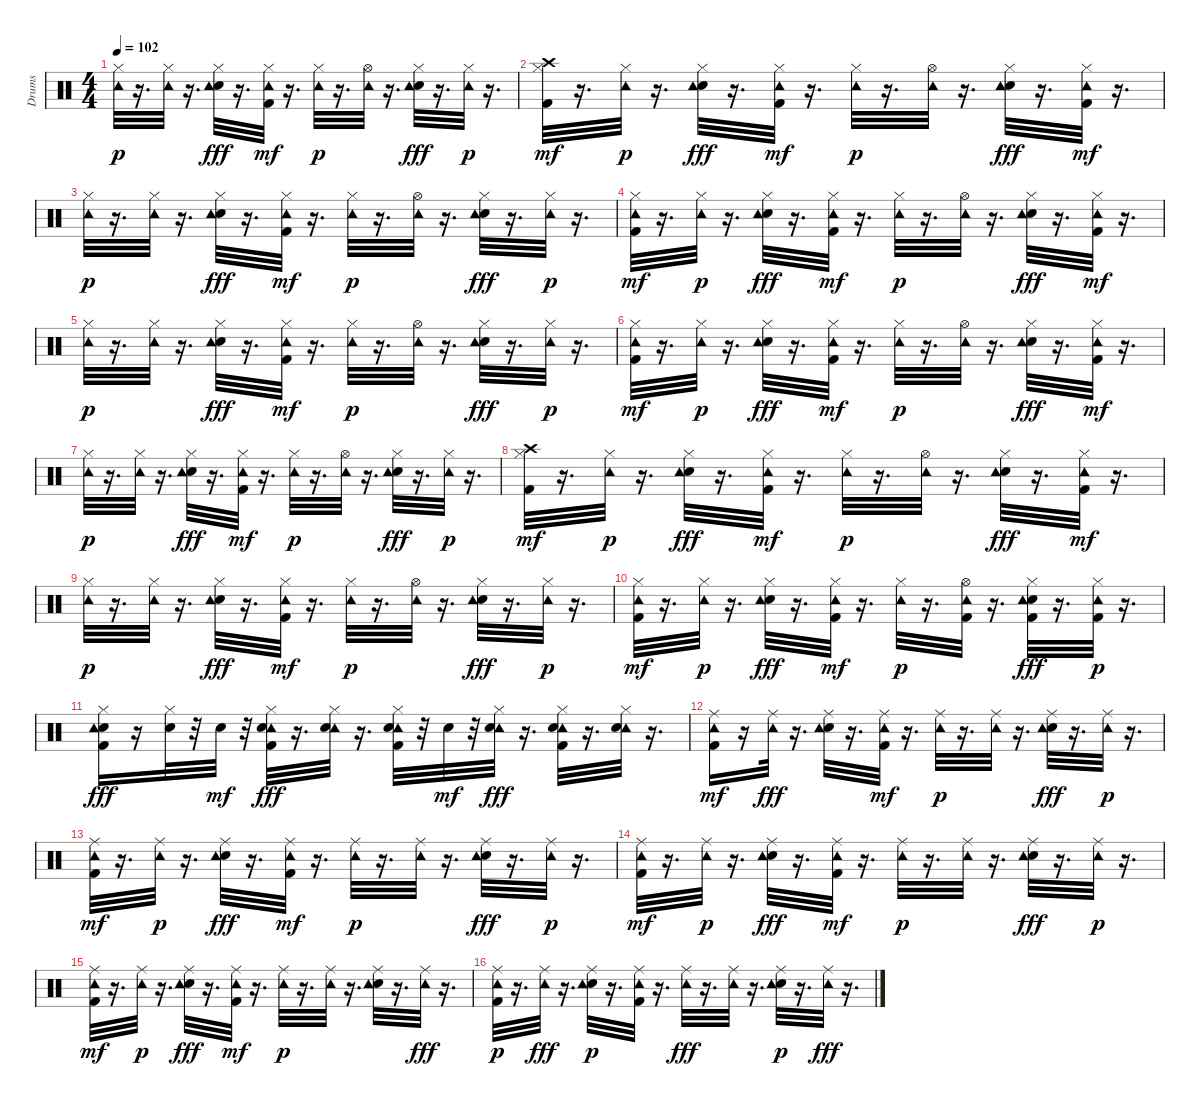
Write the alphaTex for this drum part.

\track ("Drums" "Drums") {instrument percussion}
\staff {score}
\articulation defaults
\ts (4 4)
\tempo 102
\clef neutral
\ks c
("Hi-Hat (closed)" "Tambourine (hit)").32{dy p} r.16{d} ("Hi-Hat (closed)" "Tambourine (hit)").32 r.16{d} ("Electric Snare (hit)" "Tambourine (hit)" "Hi-Hat (closed)").32{dy fff} r.16{d} ("Hi-Hat (closed)" "Tambourine (hit)" "Kick (hit) 2").32{dy mf} r.16{d} ("Hi-Hat (closed)" "Tambourine (hit)").32{dy p} r.16{d} ("Hi-Hat (open)" "Tambourine (hit)").32 r.16{d} ("Electric Snare (hit)" "Tambourine (hit)" "Hi-Hat (closed)").32{dy fff} r.16{d} ("Hi-Hat (closed)" "Tambourine (hit)").32{dy p} r.16{d} |
("Hi-Hat (closed)" "Crash high (hit)" "Kick (hit) 2").32{dy mf} r.16{d} ("Hi-Hat (closed)" "Tambourine (hit)").32{dy p} r.16{d} ("Electric Snare (hit)" "Tambourine (hit)" "Hi-Hat (closed)").32{dy fff} r.16{d} ("Hi-Hat (closed)" "Tambourine (hit)" "Kick (hit) 2").32{dy mf} r.16{d} ("Hi-Hat (closed)" "Tambourine (hit)").32{dy p} r.16{d} ("Hi-Hat (open)" "Tambourine (hit)").32 r.16{d} ("Electric Snare (hit)" "Tambourine (hit)" "Hi-Hat (closed)").32{dy fff} r.16{d} ("Hi-Hat (closed)" "Tambourine (hit)" "Kick (hit) 2").32{dy mf} r.16{d} |
("Hi-Hat (closed)" "Tambourine (hit)").32{dy p} r.16{d} ("Hi-Hat (closed)" "Tambourine (hit)").32 r.16{d} ("Electric Snare (hit)" "Tambourine (hit)" "Hi-Hat (closed)").32{dy fff} r.16{d} ("Hi-Hat (closed)" "Tambourine (hit)" "Kick (hit) 2").32{dy mf} r.16{d} ("Hi-Hat (closed)" "Tambourine (hit)").32{dy p} r.16{d} ("Hi-Hat (open)" "Tambourine (hit)").32 r.16{d} ("Electric Snare (hit)" "Tambourine (hit)" "Hi-Hat (closed)").32{dy fff} r.16{d} ("Hi-Hat (closed)" "Tambourine (hit)").32{dy p} r.16{d} |
("Hi-Hat (closed)" "Tambourine (hit)" "Kick (hit) 2").32{dy mf} r.16{d} ("Hi-Hat (closed)" "Tambourine (hit)").32{dy p} r.16{d} ("Electric Snare (hit)" "Tambourine (hit)" "Hi-Hat (closed)").32{dy fff} r.16{d} ("Hi-Hat (closed)" "Tambourine (hit)" "Kick (hit) 2").32{dy mf} r.16{d} ("Hi-Hat (closed)" "Tambourine (hit)").32{dy p} r.16{d} ("Hi-Hat (open)" "Tambourine (hit)").32 r.16{d} ("Electric Snare (hit)" "Tambourine (hit)" "Hi-Hat (closed)").32{dy fff} r.16{d} ("Hi-Hat (closed)" "Tambourine (hit)" "Kick (hit) 2").32{dy mf} r.16{d} |
("Hi-Hat (closed)" "Tambourine (hit)").32{dy p} r.16{d} ("Hi-Hat (closed)" "Tambourine (hit)").32 r.16{d} ("Electric Snare (hit)" "Tambourine (hit)" "Hi-Hat (closed)").32{dy fff} r.16{d} ("Hi-Hat (closed)" "Tambourine (hit)" "Kick (hit) 2").32{dy mf} r.16{d} ("Hi-Hat (closed)" "Tambourine (hit)").32{dy p} r.16{d} ("Hi-Hat (open)" "Tambourine (hit)").32 r.16{d} ("Electric Snare (hit)" "Tambourine (hit)" "Hi-Hat (closed)").32{dy fff} r.16{d} ("Hi-Hat (closed)" "Tambourine (hit)").32{dy p} r.16{d} |
("Hi-Hat (closed)" "Tambourine (hit)" "Kick (hit) 2").32{dy mf} r.16{d} ("Hi-Hat (closed)" "Tambourine (hit)").32{dy p} r.16{d} ("Electric Snare (hit)" "Tambourine (hit)" "Hi-Hat (closed)").32{dy fff} r.16{d} ("Hi-Hat (closed)" "Tambourine (hit)" "Kick (hit) 2").32{dy mf} r.16{d} ("Hi-Hat (closed)" "Tambourine (hit)").32{dy p} r.16{d} ("Hi-Hat (open)" "Tambourine (hit)").32 r.16{d} ("Electric Snare (hit)" "Tambourine (hit)" "Hi-Hat (closed)").32{dy fff} r.16{d} ("Hi-Hat (closed)" "Tambourine (hit)" "Kick (hit) 2").32{dy mf} r.16{d} |
("Hi-Hat (closed)" "Tambourine (hit)").32{dy p} r.16{d} ("Hi-Hat (closed)" "Tambourine (hit)").32 r.16{d} ("Electric Snare (hit)" "Tambourine (hit)" "Hi-Hat (closed)").32{dy fff} r.16{d} ("Hi-Hat (closed)" "Tambourine (hit)" "Kick (hit) 2").32{dy mf} r.16{d} ("Hi-Hat (closed)" "Tambourine (hit)").32{dy p} r.16{d} ("Hi-Hat (open)" "Tambourine (hit)").32 r.16{d} ("Electric Snare (hit)" "Tambourine (hit)" "Hi-Hat (closed)").32{dy fff} r.16{d} ("Hi-Hat (closed)" "Tambourine (hit)").32{dy p} r.16{d} |
("Hi-Hat (closed)" "Crash high (hit)" "Kick (hit) 2").32{dy mf} r.16{d} ("Hi-Hat (closed)" "Tambourine (hit)").32{dy p} r.16{d} ("Electric Snare (hit)" "Tambourine (hit)" "Hi-Hat (closed)").32{dy fff} r.16{d} ("Hi-Hat (closed)" "Tambourine (hit)" "Kick (hit) 2").32{dy mf} r.16{d} ("Hi-Hat (closed)" "Tambourine (hit)").32{dy p} r.16{d} ("Hi-Hat (open)" "Tambourine (hit)").32 r.16{d} ("Electric Snare (hit)" "Tambourine (hit)" "Hi-Hat (closed)").32{dy fff} r.16{d} ("Hi-Hat (closed)" "Tambourine (hit)" "Kick (hit) 2").32{dy mf} r.16{d} |
("Hi-Hat (closed)" "Tambourine (hit)").32{dy p} r.16{d} ("Hi-Hat (closed)" "Tambourine (hit)").32 r.16{d} ("Electric Snare (hit)" "Tambourine (hit)" "Hi-Hat (closed)").32{dy fff} r.16{d} ("Hi-Hat (closed)" "Tambourine (hit)" "Kick (hit) 2").32{dy mf} r.16{d} ("Hi-Hat (closed)" "Tambourine (hit)").32{dy p} r.16{d} ("Hi-Hat (open)" "Tambourine (hit)").32 r.16{d} ("Electric Snare (hit)" "Tambourine (hit)" "Hi-Hat (closed)").32{dy fff} r.16{d} ("Hi-Hat (closed)" "Tambourine (hit)").32{dy p} r.16{d} |
("Hi-Hat (closed)" "Tambourine (hit)" "Kick (hit) 2").32{dy mf} r.16{d} ("Hi-Hat (closed)" "Tambourine (hit)").32{dy p} r.16{d} ("Electric Snare (hit)" "Tambourine (hit)" "Hi-Hat (closed)").32{dy fff} r.16{d} ("Hi-Hat (closed)" "Tambourine (hit)" "Kick (hit) 2").32{dy mf} r.16{d} ("Hi-Hat (closed)" "Tambourine (hit)").32{dy p} r.16{d} ("Kick (hit) 2" "Hi-Hat (open)" "Tambourine (hit)").32 r.16{d} ("Kick (hit) 2" "Electric Snare (hit)" "Tambourine (hit)" "Hi-Hat (closed)").32{dy fff} r.16{d} ("Kick (hit) 2" "Hi-Hat (closed)" "Tambourine (hit)").32{dy p} r.16{d} |
("Electric Snare (hit)" "Kick (hit) 2" "Tambourine (hit)" "Hi-Hat (closed)").16{dy fff} r.16 ("Electric Snare (hit)" "Hi-Hat (closed)").32 r.32 "Electric Snare (hit)".32{dy mf} r.32 ("Kick (hit) 2" "Tambourine (hit)" "Electric Snare (hit)" "Hi-Hat (closed)").32{dy fff} r.16{d} ("Tambourine (hit)" "Electric Snare (hit)" "Hi-Hat (closed)").32 r.16{d} ("Kick (hit) 2" "Tambourine (hit)" "Electric Snare (hit)" "Hi-Hat (closed)").32 r.32 "Electric Snare (hit)".32{dy mf} r.32 ("Tambourine (hit)" "Electric Snare (hit)" "Hi-Hat (closed)").32{dy fff} r.16{d} ("Kick (hit) 2" "Tambourine (hit)" "Electric Snare (hit)" "Hi-Hat (closed)").32 r.16{d} ("Tambourine (hit)" "Electric Snare (hit)" "Hi-Hat (closed)").32 r.16{d} |
("Ride (middle)" "Tambourine (hit)" "Kick (hit) 2").16{dy mf} r.16 ("Tambourine (hit)" "Ride (middle)").32{dy fff} r.16{d} ("Electric Snare (hit)" "Tambourine (hit)" "Ride (middle)").32 r.16{d} ("Ride (middle)" "Tambourine (hit)" "Kick (hit) 2").32{dy mf} r.16{d} ("Ride (middle)" "Tambourine (hit)").32{dy p} r.16{d} ("Ride (middle)" "Tambourine (hit)").32 r.16{d} ("Electric Snare (hit)" "Tambourine (hit)" "Ride (middle)").32{dy fff} r.16{d} ("Ride (middle)" "Tambourine (hit)").32{dy p} r.16{d} |
("Ride (middle)" "Tambourine (hit)" "Kick (hit) 2").32{dy mf} r.16{d} ("Ride (middle)" "Tambourine (hit)").32{dy p} r.16{d} ("Electric Snare (hit)" "Tambourine (hit)" "Ride (middle)").32{dy fff} r.16{d} ("Ride (middle)" "Tambourine (hit)" "Kick (hit) 2").32{dy mf} r.16{d} ("Ride (middle)" "Tambourine (hit)").32{dy p} r.16{d} ("Ride (middle)" "Tambourine (hit)").32 r.16{d} ("Electric Snare (hit)" "Tambourine (hit)" "Ride (middle)").32{dy fff} r.16{d} ("Ride (middle)" "Tambourine (hit)").32{dy p} r.16{d} |
("Ride (middle)" "Tambourine (hit)" "Kick (hit) 2").32{dy mf} r.16{d} ("Ride (middle)" "Tambourine (hit)").32{dy p} r.16{d} ("Electric Snare (hit)" "Tambourine (hit)" "Ride (middle)").32{dy fff} r.16{d} ("Ride (middle)" "Tambourine (hit)" "Kick (hit) 2").32{dy mf} r.16{d} ("Ride (middle)" "Tambourine (hit)").32{dy p} r.16{d} ("Ride (middle)" "Tambourine (hit)").32 r.16{d} ("Electric Snare (hit)" "Tambourine (hit)" "Ride (middle)").32{dy fff} r.16{d} ("Ride (middle)" "Tambourine (hit)").32{dy p} r.16{d} |
("Ride (middle)" "Tambourine (hit)" "Kick (hit) 2").32{dy mf} r.16{d} ("Ride (middle)" "Tambourine (hit)").32{dy p} r.16{d} ("Electric Snare (hit)" "Tambourine (hit)" "Ride (middle)").32{dy fff} r.16{d} ("Ride (middle)" "Tambourine (hit)" "Kick (hit) 2").32{dy mf} r.16{d} ("Ride (middle)" "Tambourine (hit)").32{dy p} r.16{d} ("Ride (middle)" "Tambourine (hit)").32 r.16{d} ("Ride (middle)" "Electric Snare (hit)" "Tambourine (hit)").32 r.16{d} ("Tambourine (hit)" "Ride (middle)").32{dy fff} r.16{d} |
("Kick (hit) 2" "Ride (middle)" "Tambourine (hit)").32{dy p} r.16{d} ("Tambourine (hit)" "Ride (middle)").32{dy fff} r.16{d} ("Ride (middle)" "Electric Snare (hit)" "Tambourine (hit)").32{dy p} r.16{d} ("Kick (hit) 2" "Ride (middle)" "Tambourine (hit)").32 r.16{d} ("Tambourine (hit)" "Ride (middle)").32{dy fff} r.16{d} ("Tambourine (hit)" "Ride (middle)").32 r.16{d} ("Ride (middle)" "Electric Snare (hit)" "Tambourine (hit)").32{dy p} r.16{d} ("Tambourine (hit)" "Ride (middle)").32{dy fff} r.16{d}
